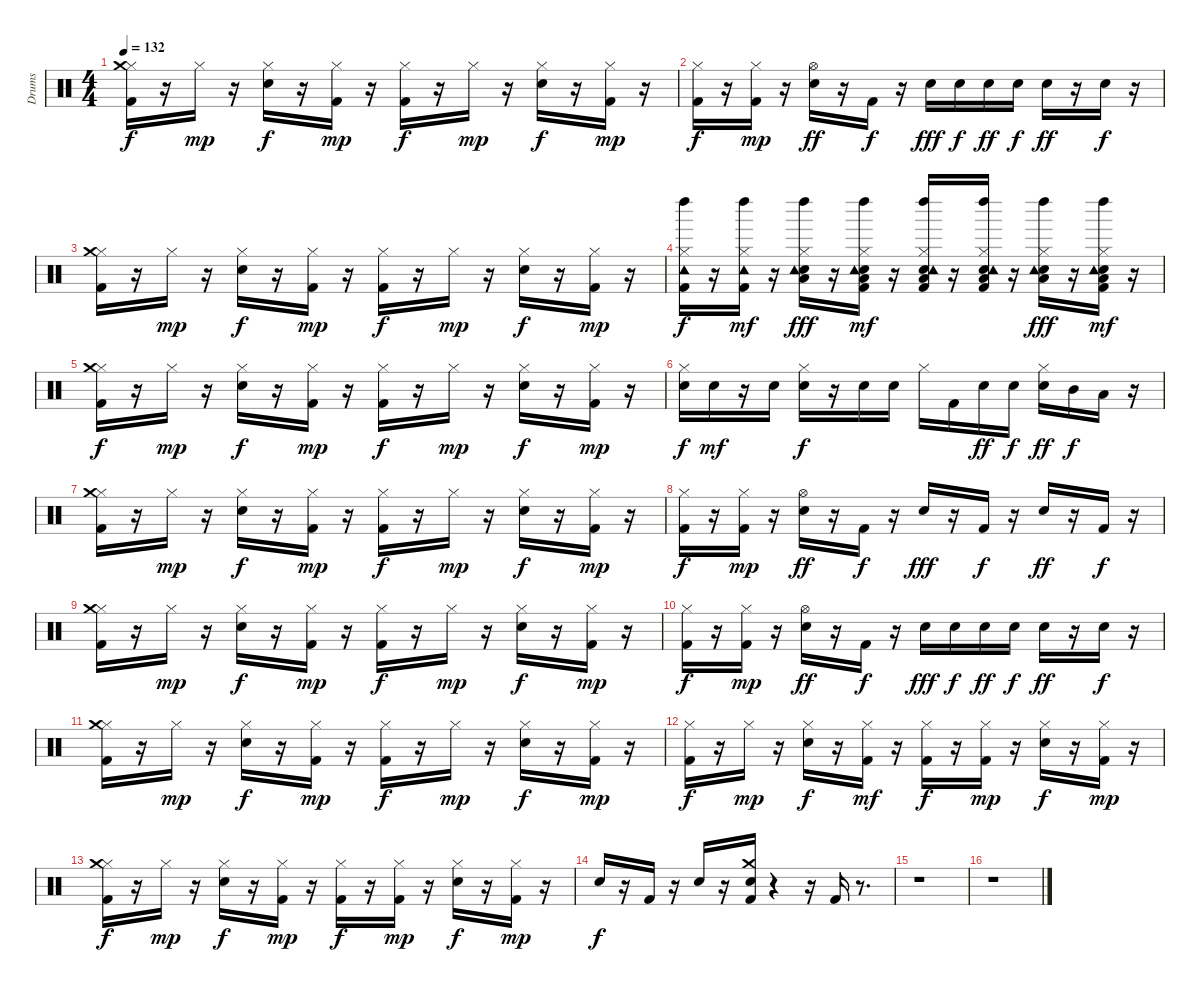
\track ("Drums" "Drums") {instrument percussion}
\staff {score}
\articulation defaults
\ts (4 4)
\tempo 132
\clef neutral
\ks c
("Kick (hit) 2" "Hi-Hat (closed)" "Crash medium (hit)").16{dy f} r.16 "Hi-Hat (closed)".16{dy mp} r.16 ("Snare (hit) 2" "Hi-Hat (closed)").16{dy f} r.16 ("Kick (hit) 2" "Hi-Hat (closed)").16{dy mp} r.16 ("Kick (hit) 2" "Hi-Hat (closed)").16{dy f} r.16 "Hi-Hat (closed)".16{dy mp} r.16 ("Snare (hit) 2" "Hi-Hat (closed)").16{dy f} r.16 ("Kick (hit) 2" "Hi-Hat (closed)").16{dy mp} r.16 |
("Kick (hit) 2" "Hi-Hat (closed)").16{dy f} r.16 ("Kick (hit) 2" "Hi-Hat (closed)").16{dy mp} r.16 ("Snare (hit) 2" "Hi-Hat (open)").16{dy ff} r.16 "Kick (hit) 2".16{dy f} r.16 "Snare (hit) 2".16{dy fff} "Snare (hit) 2".16{dy f} "Snare (hit) 2".16{dy ff} "Snare (hit) 2".16{dy f} "Snare (hit) 2".16{dy ff} r.16 "Snare (hit) 2".16{dy f} r.16 |
("Kick (hit) 2" "Hi-Hat (closed)" "Crash medium (hit)").16 r.16 "Hi-Hat (closed)".16{dy mp} r.16 ("Snare (hit) 2" "Hi-Hat (closed)").16{dy f} r.16 ("Kick (hit) 2" "Hi-Hat (closed)").16{dy mp} r.16 ("Kick (hit) 2" "Hi-Hat (closed)").16{dy f} r.16 "Hi-Hat (closed)".16{dy mp} r.16 ("Snare (hit) 2" "Hi-Hat (closed)").16{dy f} r.16 ("Kick (hit) 2" "Hi-Hat (closed)").16{dy mp} r.16 |
("Kick (hit) 2" "Hi-Hat (closed)" "Tambourine (hit)" "Left Maraca (hit)").16{dy f} r.16 ("Kick (hit) 2" "Hi-Hat (closed)" "Tambourine (hit)" "Left Maraca (hit)").16{dy mf} r.16 ("Snare (hit) 2" "Hi-Hat (closed)" "Low Floor Tom (hit)" "Tambourine (hit)" "Left Maraca (hit)").16{dy fff} r.16 ("Kick (hit) 2" "Snare (hit) 2" "Hi-Hat (closed)" "Low Floor Tom (hit)" "Tambourine (hit)" "Left Maraca (hit)").16{dy mf} r.16 ("Kick (hit) 2" "Snare (hit) 2" "Hi-Hat (closed)" "Low Floor Tom (hit)" "Tambourine (hit)" "Left Maraca (hit)").16 r.16 ("Kick (hit) 2" "Snare (hit) 2" "Hi-Hat (closed)" "Low Floor Tom (hit)" "Tambourine (hit)" "Left Maraca (hit)").16 r.16 ("Snare (hit) 2" "Hi-Hat (closed)" "Low Floor Tom (hit)" "Tambourine (hit)" "Left Maraca (hit)").16{dy fff} r.16 ("Kick (hit) 2" "Snare (hit) 2" "Hi-Hat (closed)" "Low Floor Tom (hit)" "Tambourine (hit)" "Left Maraca (hit)").16{dy mf} r.16 |
("Kick (hit) 2" "Hi-Hat (closed)" "Crash medium (hit)").16{dy f} r.16 "Hi-Hat (closed)".16{dy mp} r.16 ("Snare (hit) 2" "Hi-Hat (closed)").16{dy f} r.16 ("Kick (hit) 2" "Hi-Hat (closed)").16{dy mp} r.16 ("Kick (hit) 2" "Hi-Hat (closed)").16{dy f} r.16 "Hi-Hat (closed)".16{dy mp} r.16 ("Snare (hit) 2" "Hi-Hat (closed)").16{dy f} r.16 ("Kick (hit) 2" "Hi-Hat (closed)").16{dy mp} r.16 |
("Snare (hit) 2" "Hi-Hat (closed)").16{dy f} "Snare (hit) 2".16{dy mf} r.16 "Snare (hit) 2".16 ("Snare (hit) 2" "Hi-Hat (closed)").16{dy f} r.16 "Snare (hit) 2".16 "Snare (hit) 2".16 "Hi-Hat (closed)".16 "Kick (hit) 2".16 "Snare (hit) 2".16{dy ff} "Snare (hit) 2".16{dy f} ("Snare (hit) 2" "Hi-Hat (closed)").16{dy ff} "Mid Tom (hit)".16{dy f} "Low Floor Tom (hit)".16 r.16 |
("Kick (hit) 2" "Hi-Hat (closed)" "Crash medium (hit)").16 r.16 "Hi-Hat (closed)".16{dy mp} r.16 ("Snare (hit) 2" "Hi-Hat (closed)").16{dy f} r.16 ("Kick (hit) 2" "Hi-Hat (closed)").16{dy mp} r.16 ("Kick (hit) 2" "Hi-Hat (closed)").16{dy f} r.16 "Hi-Hat (closed)".16{dy mp} r.16 ("Snare (hit) 2" "Hi-Hat (closed)").16{dy f} r.16 ("Kick (hit) 2" "Hi-Hat (closed)").16{dy mp} r.16 |
("Kick (hit) 2" "Hi-Hat (closed)").16{dy f} r.16 ("Kick (hit) 2" "Hi-Hat (closed)").16{dy mp} r.16 ("Snare (hit) 2" "Hi-Hat (open)").16{dy ff} r.16 "Kick (hit) 2".16{dy f} r.16 "Snare (hit) 2".16{dy fff} r.16 "Kick (hit) 2".16{dy f} r.16 "Snare (hit) 2".16{dy ff} r.16 "Kick (hit) 2".16{dy f} r.16 |
("Kick (hit) 2" "Hi-Hat (closed)" "Crash medium (hit)").16 r.16 "Hi-Hat (closed)".16{dy mp} r.16 ("Snare (hit) 2" "Hi-Hat (closed)").16{dy f} r.16 ("Kick (hit) 2" "Hi-Hat (closed)").16{dy mp} r.16 ("Kick (hit) 2" "Hi-Hat (closed)").16{dy f} r.16 "Hi-Hat (closed)".16{dy mp} r.16 ("Snare (hit) 2" "Hi-Hat (closed)").16{dy f} r.16 ("Kick (hit) 2" "Hi-Hat (closed)").16{dy mp} r.16 |
("Kick (hit) 2" "Hi-Hat (closed)").16{dy f} r.16 ("Kick (hit) 2" "Hi-Hat (closed)").16{dy mp} r.16 ("Snare (hit) 2" "Hi-Hat (open)").16{dy ff} r.16 "Kick (hit) 2".16{dy f} r.16 "Snare (hit) 2".16{dy fff} "Snare (hit) 2".16{dy f} "Snare (hit) 2".16{dy ff} "Snare (hit) 2".16{dy f} "Snare (hit) 2".16{dy ff} r.16 "Snare (hit) 2".16{dy f} r.16 |
("Kick (hit) 2" "Hi-Hat (closed)" "Crash medium (hit)").16 r.16 "Hi-Hat (closed)".16{dy mp} r.16 ("Snare (hit) 2" "Hi-Hat (closed)").16{dy f} r.16 ("Kick (hit) 2" "Hi-Hat (closed)").16{dy mp} r.16 ("Kick (hit) 2" "Hi-Hat (closed)").16{dy f} r.16 "Hi-Hat (closed)".16{dy mp} r.16 ("Snare (hit) 2" "Hi-Hat (closed)").16{dy f} r.16 ("Kick (hit) 2" "Hi-Hat (closed)").16{dy mp} r.16 |
("Kick (hit) 2" "Hi-Hat (closed)").16{dy f} r.16 "Hi-Hat (closed)".16{dy mp} r.16 ("Snare (hit) 2" "Hi-Hat (closed)").16{dy f} r.16 ("Kick (hit) 2" "Hi-Hat (closed)").16{dy mf} r.16 ("Kick (hit) 2" "Hi-Hat (closed)").16{dy f} r.16 ("Kick (hit) 2" "Hi-Hat (closed)").16{dy mp} r.16 ("Snare (hit) 2" "Hi-Hat (closed)").16{dy f} r.16 ("Kick (hit) 2" "Hi-Hat (closed)").16{dy mp} r.16 |
("Kick (hit) 2" "Hi-Hat (closed)" "Crash medium (hit)").16{dy f} r.16 "Hi-Hat (closed)".16{dy mp} r.16 ("Snare (hit) 2" "Hi-Hat (closed)").16{dy f} r.16 ("Kick (hit) 2" "Hi-Hat (closed)").16{dy mp} r.16 ("Kick (hit) 2" "Hi-Hat (closed)").16{dy f} r.16 ("Kick (hit) 2" "Hi-Hat (closed)").16{dy mp} r.16 ("Snare (hit) 2" "Hi-Hat (closed)").16{dy f} r.16 ("Kick (hit) 2" "Hi-Hat (closed)").16{dy mp} r.16 |
"Snare (hit) 2".16{dy f} r.16 "Kick (hit) 2".16 r.16 "Snare (hit) 2".16 r.16 ("Kick (hit) 2" "Snare (hit) 2" "Crash medium (hit)").16 r.4 r.16 "Kick (hit) 2".16 r.8{d} |
r.1 |
r.1
